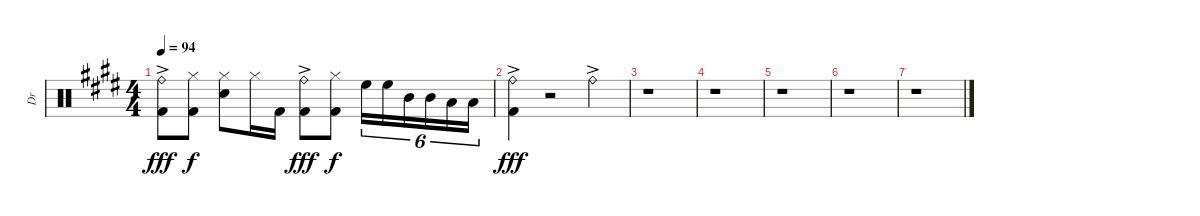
\track ("Dr" "Dr") {instrument percussion}
\staff {score}
\articulation defaults
\ts (4 4)
\tempo 94
\clef neutral
\ks e
("Ride (bell)"{ac} "Kick (hit) 2"{ac}).8{dy fff} ("Hi-Hat (closed)" "Kick (hit) 2").8{dy f} ("Hi-Hat (closed)" "Electric Snare (hit)").8 "Hi-Hat (closed)".16 "Kick (hit) 2".16 ("Ride (bell)"{ac} "Kick (hit) 2"{ac}).8{dy fff} ("Hi-Hat (closed)" "Kick (hit) 2").8{dy f} "High Floor Tom (hit)".16{tu (6 4)} "High Floor Tom (hit)".16{tu (6 4)} "Mid Tom (hit)".16{tu (6 4)} "Mid Tom (hit)".16{tu (6 4)} "Low Tom (hit)".16{tu (6 4)} "Low Tom (hit)".16{tu (6 4)} |
("Ride (bell)"{ac} "Kick (hit) 2"{ac}).4{dy fff} r.2 "Ride (bell)"{ac}.4 |
r.1 |
r.1 |
r.1 |
r.1 |
r.1
